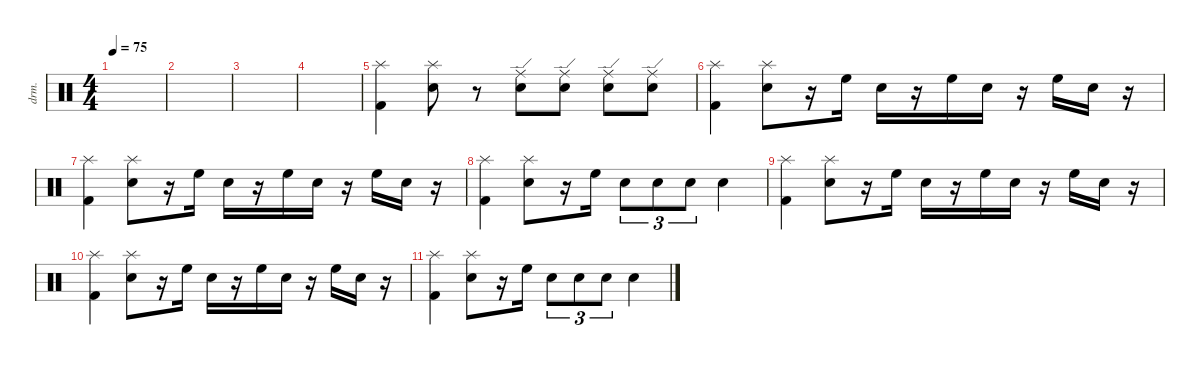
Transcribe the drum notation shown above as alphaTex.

\defaultSystemsLayout 4
\hideDynamics
\bracketExtendMode nobrackets
\otherSystemsTrackNameOrientation horizontal
\track ("Drumkit" "drm.") {instrument percussion}
\staff {score}
\articulation defaults
\ts (4 4)
\tempo 75
\clef neutral
\ks c
|
|
|
|
("Kick (hit) 2" "Splash (hit)").4{beam Down} ("Snare (hit) 2" "Splash (hit)").8{beam Down} r.8{beam Down} ("Snare (hit) 2" "Ride (edge)").8{beam Down} ("Snare (hit) 2" "Ride (edge)").8{beam Down} ("Snare (hit) 2" "Ride (edge)").8{beam Down} ("Snare (hit) 2" "Ride (edge)").8{beam Down} |
("Kick (hit) 2" "Splash (hit)").4{beam Down} ("Snare (hit) 2" "Splash (hit)").8{beam Down} r.16{beam Down} "High Floor Tom (hit)".16{beam Down} "Snare (hit) 2".16{beam Down} r.16{beam Down} "High Floor Tom (hit)".16{beam Down} "Snare (hit) 2".16{beam Down} r.16{beam Down} "High Floor Tom (hit)".16{beam Down} "Snare (hit) 2".16{beam Down} r.16{beam Down} |
("Kick (hit) 2" "Splash (hit)").4{beam Down} ("Snare (hit) 2" "Splash (hit)").8{beam Down} r.16{beam Down} "High Floor Tom (hit)".16{beam Down} "Snare (hit) 2".16{beam Down} r.16{beam Down} "High Floor Tom (hit)".16{beam Down} "Snare (hit) 2".16{beam Down} r.16{beam Down} "High Floor Tom (hit)".16{beam Down} "Snare (hit) 2".16{beam Down} r.16{beam Down} |
("Kick (hit) 2" "Splash (hit)").4{beam Down} ("Snare (hit) 2" "Splash (hit)").8{beam Down} r.16{beam Down} "High Floor Tom (hit)".16{beam Down} "Snare (hit) 2".8{tu (3 2) beam Down} "Snare (hit) 2".8{tu (3 2) beam Down} "Snare (hit) 2".8{tu (3 2) beam Down} "Snare (hit) 2".4{beam Down} |
("Kick (hit) 2" "Splash (hit)").4{beam Down} ("Snare (hit) 2" "Splash (hit)").8{beam Down} r.16{beam Down} "High Floor Tom (hit)".16{beam Down} "Snare (hit) 2".16{beam Down} r.16{beam Down} "High Floor Tom (hit)".16{beam Down} "Snare (hit) 2".16{beam Down} r.16{beam Down} "High Floor Tom (hit)".16{beam Down} "Snare (hit) 2".16{beam Down} r.16{beam Down} |
("Kick (hit) 2" "Splash (hit)").4{beam Down} ("Snare (hit) 2" "Splash (hit)").8{beam Down} r.16{beam Down} "High Floor Tom (hit)".16{beam Down} "Snare (hit) 2".16{beam Down} r.16{beam Down} "High Floor Tom (hit)".16{beam Down} "Snare (hit) 2".16{beam Down} r.16{beam Down} "High Floor Tom (hit)".16{beam Down} "Snare (hit) 2".16{beam Down} r.16{beam Down} |
("Kick (hit) 2" "Splash (hit)").4{beam Down} ("Snare (hit) 2" "Splash (hit)").8{beam Down} r.16{beam Down} "High Floor Tom (hit)".16{beam Down} "Snare (hit) 2".8{tu (3 2) beam Down} "Snare (hit) 2".8{tu (3 2) beam Down} "Snare (hit) 2".8{tu (3 2) beam Down} "Snare (hit) 2".4{beam Down}
